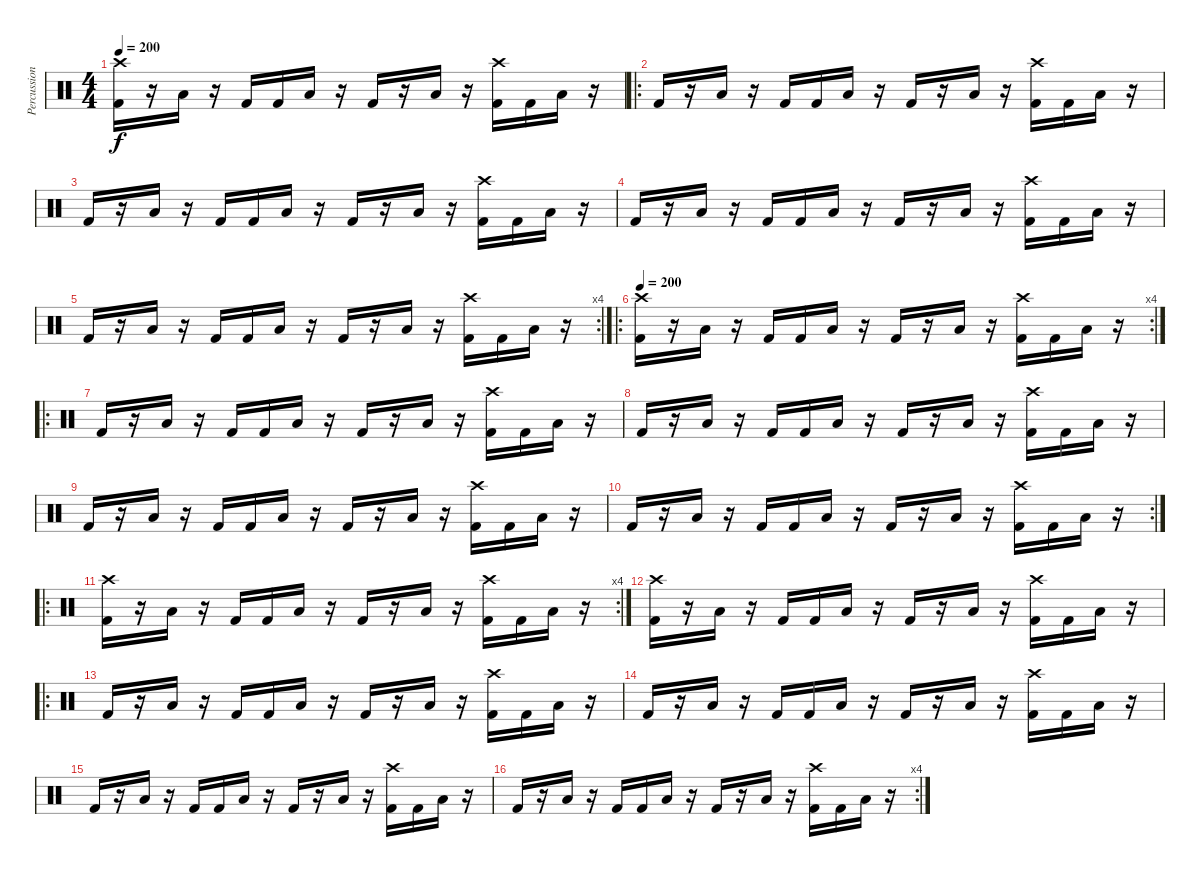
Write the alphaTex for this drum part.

\track ("Percussioni" "Percussion") {instrument percussion}
\staff {score}
\articulation defaults
\ts (4 4)
\tempo 200
\clef neutral
\ks c
("Crash high (hit)" "Kick (hit) 2").16{dy f} r.16 "Low Floor Tom (hit)".16 r.16 "Kick (hit) 2".16 "Kick (hit) 2".16 "Low Floor Tom (hit)".16 r.16 "Kick (hit) 2".16 r.16 "Low Floor Tom (hit)".16 r.16 ("Crash high (hit)" "Kick (hit) 2").16 "Kick (hit) 2".16 "Low Floor Tom (hit)".16 r.16 |
\ro "Kick (hit) 2".16
r.16 "Low Floor Tom (hit)".16 r.16 "Kick (hit) 2".16 "Kick (hit) 2".16 "Low Floor Tom (hit)".16 r.16 "Kick (hit) 2".16 r.16 "Low Floor Tom (hit)".16 r.16 ("Crash high (hit)" "Kick (hit) 2").16 "Kick (hit) 2".16 "Low Floor Tom (hit)".16 r.16 |
"Kick (hit) 2".16 r.16 "Low Floor Tom (hit)".16 r.16 "Kick (hit) 2".16 "Kick (hit) 2".16 "Low Floor Tom (hit)".16 r.16 "Kick (hit) 2".16 r.16 "Low Floor Tom (hit)".16 r.16 ("Crash high (hit)" "Kick (hit) 2").16 "Kick (hit) 2".16 "Low Floor Tom (hit)".16 r.16 |
"Kick (hit) 2".16 r.16 "Low Floor Tom (hit)".16 r.16 "Kick (hit) 2".16 "Kick (hit) 2".16 "Low Floor Tom (hit)".16 r.16 "Kick (hit) 2".16 r.16 "Low Floor Tom (hit)".16 r.16 ("Crash high (hit)" "Kick (hit) 2").16 "Kick (hit) 2".16 "Low Floor Tom (hit)".16 r.16 |
\rc 4 "Kick (hit) 2".16
r.16 "Low Floor Tom (hit)".16 r.16 "Kick (hit) 2".16 "Kick (hit) 2".16 "Low Floor Tom (hit)".16 r.16 "Kick (hit) 2".16 r.16 "Low Floor Tom (hit)".16 r.16 ("Crash high (hit)" "Kick (hit) 2").16 "Kick (hit) 2".16 "Low Floor Tom (hit)".16 r.16 |
\ro
\rc 4
\tempo 200
("Crash high (hit)" "Kick (hit) 2").16 r.16 "Low Floor Tom (hit)".16 r.16 "Kick (hit) 2".16 "Kick (hit) 2".16 "Low Floor Tom (hit)".16 r.16 "Kick (hit) 2".16 r.16 "Low Floor Tom (hit)".16 r.16 ("Crash high (hit)" "Kick (hit) 2").16 "Kick (hit) 2".16 "Low Floor Tom (hit)".16 r.16 |
\ro "Kick (hit) 2".16
r.16 "Low Floor Tom (hit)".16 r.16 "Kick (hit) 2".16 "Kick (hit) 2".16 "Low Floor Tom (hit)".16 r.16 "Kick (hit) 2".16 r.16 "Low Floor Tom (hit)".16 r.16 ("Crash high (hit)" "Kick (hit) 2").16 "Kick (hit) 2".16 "Low Floor Tom (hit)".16 r.16 |
"Kick (hit) 2".16 r.16 "Low Floor Tom (hit)".16 r.16 "Kick (hit) 2".16 "Kick (hit) 2".16 "Low Floor Tom (hit)".16 r.16 "Kick (hit) 2".16 r.16 "Low Floor Tom (hit)".16 r.16 ("Crash high (hit)" "Kick (hit) 2").16 "Kick (hit) 2".16 "Low Floor Tom (hit)".16 r.16 |
"Kick (hit) 2".16 r.16 "Low Floor Tom (hit)".16 r.16 "Kick (hit) 2".16 "Kick (hit) 2".16 "Low Floor Tom (hit)".16 r.16 "Kick (hit) 2".16 r.16 "Low Floor Tom (hit)".16 r.16 ("Crash high (hit)" "Kick (hit) 2").16 "Kick (hit) 2".16 "Low Floor Tom (hit)".16 r.16 |
\rc 2 "Kick (hit) 2".16
r.16 "Low Floor Tom (hit)".16 r.16 "Kick (hit) 2".16 "Kick (hit) 2".16 "Low Floor Tom (hit)".16 r.16 "Kick (hit) 2".16 r.16 "Low Floor Tom (hit)".16 r.16 ("Crash high (hit)" "Kick (hit) 2").16 "Kick (hit) 2".16 "Low Floor Tom (hit)".16 r.16 |
\ro
\rc 4
("Crash high (hit)" "Kick (hit) 2").16 r.16 "Low Floor Tom (hit)".16 r.16 "Kick (hit) 2".16 "Kick (hit) 2".16 "Low Floor Tom (hit)".16 r.16 "Kick (hit) 2".16 r.16 "Low Floor Tom (hit)".16 r.16 ("Crash high (hit)" "Kick (hit) 2").16 "Kick (hit) 2".16 "Low Floor Tom (hit)".16 r.16 |
("Crash high (hit)" "Kick (hit) 2").16 r.16 "Low Floor Tom (hit)".16 r.16 "Kick (hit) 2".16 "Kick (hit) 2".16 "Low Floor Tom (hit)".16 r.16 "Kick (hit) 2".16 r.16 "Low Floor Tom (hit)".16 r.16 ("Crash high (hit)" "Kick (hit) 2").16 "Kick (hit) 2".16 "Low Floor Tom (hit)".16 r.16 |
\ro "Kick (hit) 2".16
r.16 "Low Floor Tom (hit)".16 r.16 "Kick (hit) 2".16 "Kick (hit) 2".16 "Low Floor Tom (hit)".16 r.16 "Kick (hit) 2".16 r.16 "Low Floor Tom (hit)".16 r.16 ("Crash high (hit)" "Kick (hit) 2").16 "Kick (hit) 2".16 "Low Floor Tom (hit)".16 r.16 |
"Kick (hit) 2".16 r.16 "Low Floor Tom (hit)".16 r.16 "Kick (hit) 2".16 "Kick (hit) 2".16 "Low Floor Tom (hit)".16 r.16 "Kick (hit) 2".16 r.16 "Low Floor Tom (hit)".16 r.16 ("Crash high (hit)" "Kick (hit) 2").16 "Kick (hit) 2".16 "Low Floor Tom (hit)".16 r.16 |
"Kick (hit) 2".16 r.16 "Low Floor Tom (hit)".16 r.16 "Kick (hit) 2".16 "Kick (hit) 2".16 "Low Floor Tom (hit)".16 r.16 "Kick (hit) 2".16 r.16 "Low Floor Tom (hit)".16 r.16 ("Crash high (hit)" "Kick (hit) 2").16 "Kick (hit) 2".16 "Low Floor Tom (hit)".16 r.16 |
\rc 4 "Kick (hit) 2".16
r.16 "Low Floor Tom (hit)".16 r.16 "Kick (hit) 2".16 "Kick (hit) 2".16 "Low Floor Tom (hit)".16 r.16 "Kick (hit) 2".16 r.16 "Low Floor Tom (hit)".16 r.16 ("Crash high (hit)" "Kick (hit) 2").16 "Kick (hit) 2".16 "Low Floor Tom (hit)".16 r.16
